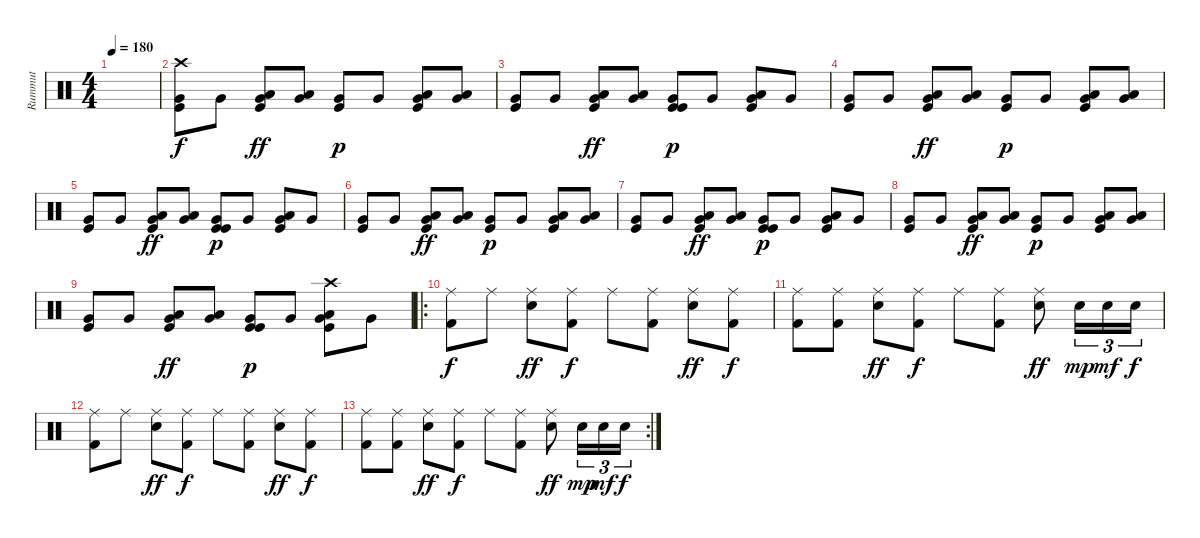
\track ("Rummut" "Rummut") {instrument percussion}
\staff {score}
\articulation defaults
\ts (4 4)
\tempo 180
\clef neutral
\ks c
|
("Crash high (hit)" "Very Low Tom (hit)" "Kick (hit)").8 "Very Low Tom (hit)".8 ("Very Low Tom (hit)" "Kick (hit)" "Low Tom (hit)").8{dy ff} ("Very Low Tom (hit)" "Low Tom (hit)").8 ("Very Low Tom (hit)" "Kick (hit)").8{dy p} "Very Low Tom (hit)".8 ("Very Low Tom (hit)" "Kick (hit)" "Low Tom (hit)").8 ("Very Low Tom (hit)" "Low Tom (hit)").8 |
("Very Low Tom (hit)" "Kick (hit)").8 "Very Low Tom (hit)".8 ("Very Low Tom (hit)" "Kick (hit)" "Low Tom (hit)").8{dy ff} ("Very Low Tom (hit)" "Low Tom (hit)").8 ("Very Low Tom (hit)" "Kick (hit)" "Kick (hit)").8{dy p} "Very Low Tom (hit)".8 ("Very Low Tom (hit)" "Kick (hit)" "Low Tom (hit)").8 "Very Low Tom (hit)".8 |
("Very Low Tom (hit)" "Kick (hit)").8 "Very Low Tom (hit)".8 ("Very Low Tom (hit)" "Kick (hit)" "Low Tom (hit)").8{dy ff} ("Very Low Tom (hit)" "Low Tom (hit)").8 ("Very Low Tom (hit)" "Kick (hit)").8{dy p} "Very Low Tom (hit)".8 ("Very Low Tom (hit)" "Kick (hit)" "Low Tom (hit)").8 ("Very Low Tom (hit)" "Low Tom (hit)").8 |
("Very Low Tom (hit)" "Kick (hit)").8 "Very Low Tom (hit)".8 ("Very Low Tom (hit)" "Kick (hit)" "Low Tom (hit)").8{dy ff} ("Very Low Tom (hit)" "Low Tom (hit)").8 ("Very Low Tom (hit)" "Kick (hit)" "Kick (hit)").8{dy p} "Very Low Tom (hit)".8 ("Very Low Tom (hit)" "Kick (hit)" "Low Tom (hit)").8 "Very Low Tom (hit)".8 |
("Very Low Tom (hit)" "Kick (hit)").8 "Very Low Tom (hit)".8 ("Very Low Tom (hit)" "Kick (hit)" "Low Tom (hit)").8{dy ff} ("Very Low Tom (hit)" "Low Tom (hit)").8 ("Very Low Tom (hit)" "Kick (hit)").8{dy p} "Very Low Tom (hit)".8 ("Very Low Tom (hit)" "Kick (hit)" "Low Tom (hit)").8 ("Very Low Tom (hit)" "Low Tom (hit)").8 |
("Very Low Tom (hit)" "Kick (hit)").8 "Very Low Tom (hit)".8 ("Very Low Tom (hit)" "Kick (hit)" "Low Tom (hit)").8{dy ff} ("Very Low Tom (hit)" "Low Tom (hit)").8 ("Very Low Tom (hit)" "Kick (hit)" "Kick (hit)").8{dy p} "Very Low Tom (hit)".8 ("Very Low Tom (hit)" "Kick (hit)" "Low Tom (hit)").8 "Very Low Tom (hit)".8 |
("Very Low Tom (hit)" "Kick (hit)").8 "Very Low Tom (hit)".8 ("Very Low Tom (hit)" "Kick (hit)" "Low Tom (hit)").8{dy ff} ("Very Low Tom (hit)" "Low Tom (hit)").8 ("Very Low Tom (hit)" "Kick (hit)").8{dy p} "Very Low Tom (hit)".8 ("Very Low Tom (hit)" "Kick (hit)" "Low Tom (hit)").8 ("Very Low Tom (hit)" "Low Tom (hit)").8 |
("Very Low Tom (hit)" "Kick (hit)").8 "Very Low Tom (hit)".8 ("Very Low Tom (hit)" "Kick (hit)" "Low Tom (hit)").8{dy ff} ("Very Low Tom (hit)" "Low Tom (hit)").8 ("Very Low Tom (hit)" "Kick (hit)" "Kick (hit)").8{dy p} "Very Low Tom (hit)".8 ("Crash high (hit)" "Very Low Tom (hit)" "Kick (hit)" "Low Tom (hit)").8 "Very Low Tom (hit)".8 |
\ro
("Ride (middle)" "Kick (hit) 2").8{dy f} "Ride (middle)".8 ("Ride (middle)" "Electric Snare (hit)").8{dy ff} ("Ride (middle)" "Kick (hit) 2").8{dy f} "Ride (middle)".8 ("Ride (middle)" "Kick (hit) 2").8 ("Ride (middle)" "Electric Snare (hit)").8{dy ff} ("Ride (middle)" "Kick (hit) 2").8{dy f} |
("Ride (middle)" "Kick (hit) 2").8 ("Ride (middle)" "Kick (hit) 2").8 ("Ride (middle)" "Electric Snare (hit)").8{dy ff} ("Ride (middle)" "Kick (hit) 2").8{dy f} "Ride (middle)".8 ("Ride (middle)" "Kick (hit) 2").8 ("Ride (middle)" "Electric Snare (hit)").8{dy ff} "Electric Snare (hit)".16{tu (3 2) dy mp} "Electric Snare (hit)".16{tu (3 2) dy mf} "Electric Snare (hit)".16{tu (3 2) dy f} |
("Ride (middle)" "Kick (hit) 2").8 "Ride (middle)".8 ("Ride (middle)" "Electric Snare (hit)").8{dy ff} ("Ride (middle)" "Kick (hit) 2").8{dy f} "Ride (middle)".8 ("Ride (middle)" "Kick (hit) 2").8 ("Ride (middle)" "Electric Snare (hit)").8{dy ff} ("Ride (middle)" "Kick (hit) 2").8{dy f} |
\rc 2
("Ride (middle)" "Kick (hit) 2").8 ("Ride (middle)" "Kick (hit) 2").8 ("Ride (middle)" "Electric Snare (hit)").8{dy ff} ("Ride (middle)" "Kick (hit) 2").8{dy f} "Ride (middle)".8 ("Ride (middle)" "Kick (hit) 2").8 ("Ride (middle)" "Electric Snare (hit)").8{dy ff} "Electric Snare (hit)".16{tu (3 2) dy mp} "Electric Snare (hit)".16{tu (3 2) dy mf} "Electric Snare (hit)".16{tu (3 2) dy f}
